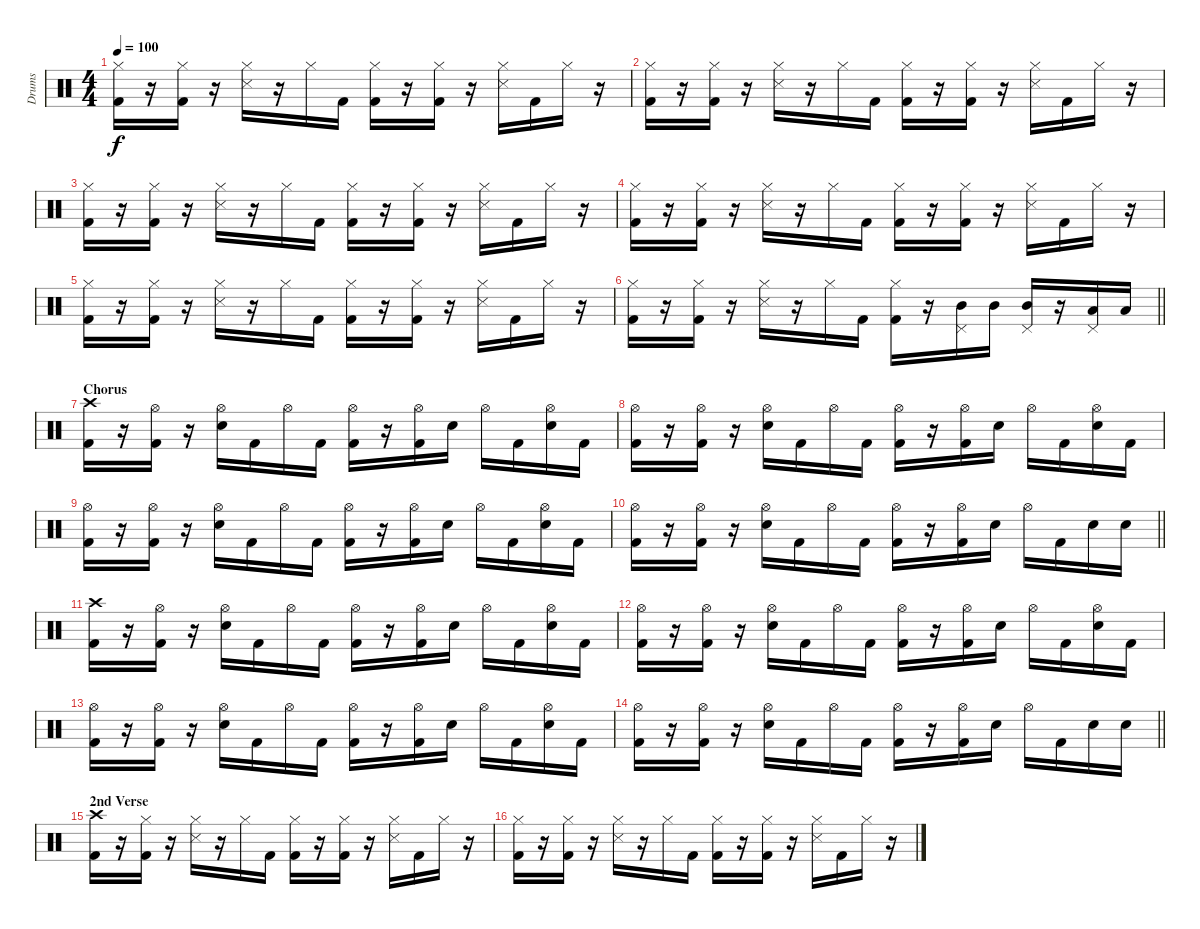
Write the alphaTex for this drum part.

\track ("Drums" "Drums") {instrument percussion}
\staff {score}
\articulation defaults
\ts (4 4)
\tempo 100
\clef neutral
\ks c
("Hi-Hat (closed)" "Kick (hit) 2").16{dy f} r.16 ("Hi-Hat (closed)" "Kick (hit) 2").16 r.16 ("Hi-Hat (closed)" "Snare (side stick) 3").16 r.16 "Hi-Hat (closed)".16 "Kick (hit) 2".16 ("Hi-Hat (closed)" "Kick (hit) 2").16 r.16 ("Hi-Hat (closed)" "Kick (hit) 2").16 r.16 ("Hi-Hat (closed)" "Snare (side stick) 3").16 "Kick (hit) 2".16 "Hi-Hat (closed)".16 r.16 |
("Hi-Hat (closed)" "Kick (hit) 2").16 r.16 ("Hi-Hat (closed)" "Kick (hit) 2").16 r.16 ("Hi-Hat (closed)" "Snare (side stick) 3").16 r.16 "Hi-Hat (closed)".16 "Kick (hit) 2".16 ("Hi-Hat (closed)" "Kick (hit) 2").16 r.16 ("Hi-Hat (closed)" "Kick (hit) 2").16 r.16 ("Hi-Hat (closed)" "Snare (side stick) 3").16 "Kick (hit) 2".16 "Hi-Hat (closed)".16 r.16 |
("Hi-Hat (closed)" "Kick (hit) 2").16 r.16 ("Hi-Hat (closed)" "Kick (hit) 2").16 r.16 ("Hi-Hat (closed)" "Snare (side stick) 3").16 r.16 "Hi-Hat (closed)".16 "Kick (hit) 2".16 ("Hi-Hat (closed)" "Kick (hit) 2").16 r.16 ("Hi-Hat (closed)" "Kick (hit) 2").16 r.16 ("Hi-Hat (closed)" "Snare (side stick) 3").16 "Kick (hit) 2".16 "Hi-Hat (closed)".16 r.16 |
("Hi-Hat (closed)" "Kick (hit) 2").16 r.16 ("Hi-Hat (closed)" "Kick (hit) 2").16 r.16 ("Hi-Hat (closed)" "Snare (side stick) 3").16 r.16 "Hi-Hat (closed)".16 "Kick (hit) 2".16 ("Hi-Hat (closed)" "Kick (hit) 2").16 r.16 ("Hi-Hat (closed)" "Kick (hit) 2").16 r.16 ("Hi-Hat (closed)" "Snare (side stick) 3").16 "Kick (hit) 2".16 "Hi-Hat (closed)".16 r.16 |
("Hi-Hat (closed)" "Kick (hit) 2").16 r.16 ("Hi-Hat (closed)" "Kick (hit) 2").16 r.16 ("Hi-Hat (closed)" "Snare (side stick) 3").16 r.16 "Hi-Hat (closed)".16 "Kick (hit) 2".16 ("Hi-Hat (closed)" "Kick (hit) 2").16 r.16 ("Hi-Hat (closed)" "Kick (hit) 2").16 r.16 ("Hi-Hat (closed)" "Snare (side stick) 3").16 "Kick (hit) 2".16 "Hi-Hat (closed)".16 r.16 |
\barLineRight lightlight
("Hi-Hat (closed)" "Kick (hit) 2").16 r.16 ("Hi-Hat (closed)" "Kick (hit) 2").16 r.16 ("Hi-Hat (closed)" "Snare (side stick) 3").16 r.16 "Hi-Hat (closed)".16 "Kick (hit) 2".16 ("Hi-Hat (closed)" "Kick (hit) 2").16 r.16 ("Pedal Hi-Hat (hit)" "Mid Tom (hit)").16 "Mid Tom (hit)".16 ("Pedal Hi-Hat (hit)" "Mid Tom (hit)").16 r.16 ("Pedal Hi-Hat (hit)" "Low Tom (hit)").16 "Low Tom (hit)".16 |
\section ("" "Chorus")
("Crash high (hit)" "Kick (hit) 2").16 r.16 ("Hi-Hat (open)" "Kick (hit) 2").16 r.16 ("Hi-Hat (open)" "Snare (hit) 2").16 "Kick (hit) 2".16 "Hi-Hat (open)".16 "Kick (hit) 2".16 ("Hi-Hat (open)" "Kick (hit) 2").16 r.16 ("Hi-Hat (open)" "Kick (hit) 2").16 "Snare (hit) 2".16 "Hi-Hat (open)".16 "Kick (hit) 2".16 ("Hi-Hat (open)" "Snare (hit) 2").16 "Kick (hit) 2".16 |
("Hi-Hat (open)" "Kick (hit) 2").16 r.16 ("Hi-Hat (open)" "Kick (hit) 2").16 r.16 ("Hi-Hat (open)" "Snare (hit) 2").16 "Kick (hit) 2".16 "Hi-Hat (open)".16 "Kick (hit) 2".16 ("Hi-Hat (open)" "Kick (hit) 2").16 r.16 ("Hi-Hat (open)" "Kick (hit) 2").16 "Snare (hit) 2".16 "Hi-Hat (open)".16 "Kick (hit) 2".16 ("Hi-Hat (open)" "Snare (hit) 2").16 "Kick (hit) 2".16 |
("Hi-Hat (open)" "Kick (hit) 2").16 r.16 ("Hi-Hat (open)" "Kick (hit) 2").16 r.16 ("Hi-Hat (open)" "Snare (hit) 2").16 "Kick (hit) 2".16 "Hi-Hat (open)".16 "Kick (hit) 2".16 ("Hi-Hat (open)" "Kick (hit) 2").16 r.16 ("Hi-Hat (open)" "Kick (hit) 2").16 "Snare (hit) 2".16 "Hi-Hat (open)".16 "Kick (hit) 2".16 ("Hi-Hat (open)" "Snare (hit) 2").16 "Kick (hit) 2".16 |
\barLineRight lightlight
("Hi-Hat (open)" "Kick (hit) 2").16 r.16 ("Hi-Hat (open)" "Kick (hit) 2").16 r.16 ("Hi-Hat (open)" "Snare (hit) 2").16 "Kick (hit) 2".16 "Hi-Hat (open)".16 "Kick (hit) 2".16 ("Hi-Hat (open)" "Kick (hit) 2").16 r.16 ("Hi-Hat (open)" "Kick (hit) 2").16 "Snare (hit) 2".16 "Hi-Hat (open)".16 "Kick (hit) 2".16 "Snare (hit) 2".16 "Snare (hit) 2".16 |
("Crash high (hit)" "Kick (hit) 2").16 r.16 ("Hi-Hat (open)" "Kick (hit) 2").16 r.16 ("Hi-Hat (open)" "Snare (hit) 2").16 "Kick (hit) 2".16 "Hi-Hat (open)".16 "Kick (hit) 2".16 ("Hi-Hat (open)" "Kick (hit) 2").16 r.16 ("Hi-Hat (open)" "Kick (hit) 2").16 "Snare (hit) 2".16 "Hi-Hat (open)".16 "Kick (hit) 2".16 ("Hi-Hat (open)" "Snare (hit) 2").16 "Kick (hit) 2".16 |
("Hi-Hat (open)" "Kick (hit) 2").16 r.16 ("Hi-Hat (open)" "Kick (hit) 2").16 r.16 ("Hi-Hat (open)" "Snare (hit) 2").16 "Kick (hit) 2".16 "Hi-Hat (open)".16 "Kick (hit) 2".16 ("Hi-Hat (open)" "Kick (hit) 2").16 r.16 ("Hi-Hat (open)" "Kick (hit) 2").16 "Snare (hit) 2".16 "Hi-Hat (open)".16 "Kick (hit) 2".16 ("Hi-Hat (open)" "Snare (hit) 2").16 "Kick (hit) 2".16 |
("Hi-Hat (open)" "Kick (hit) 2").16 r.16 ("Hi-Hat (open)" "Kick (hit) 2").16 r.16 ("Hi-Hat (open)" "Snare (hit) 2").16 "Kick (hit) 2".16 "Hi-Hat (open)".16 "Kick (hit) 2".16 ("Hi-Hat (open)" "Kick (hit) 2").16 r.16 ("Hi-Hat (open)" "Kick (hit) 2").16 "Snare (hit) 2".16 "Hi-Hat (open)".16 "Kick (hit) 2".16 ("Hi-Hat (open)" "Snare (hit) 2").16 "Kick (hit) 2".16 |
\barLineRight lightlight
("Hi-Hat (open)" "Kick (hit) 2").16 r.16 ("Hi-Hat (open)" "Kick (hit) 2").16 r.16 ("Hi-Hat (open)" "Snare (hit) 2").16 "Kick (hit) 2".16 "Hi-Hat (open)".16 "Kick (hit) 2".16 ("Hi-Hat (open)" "Kick (hit) 2").16 r.16 ("Hi-Hat (open)" "Kick (hit) 2").16 "Snare (hit) 2".16 "Hi-Hat (open)".16 "Kick (hit) 2".16 "Snare (hit) 2".16 "Snare (hit) 2".16 |
\section ("" "2nd Verse")
("Crash high (hit)" "Kick (hit) 2").16 r.16 ("Hi-Hat (closed)" "Kick (hit) 2").16 r.16 ("Hi-Hat (closed)" "Snare (side stick) 3").16 r.16 "Hi-Hat (closed)".16 "Kick (hit) 2".16 ("Hi-Hat (closed)" "Kick (hit) 2").16 r.16 ("Hi-Hat (closed)" "Kick (hit) 2").16 r.16 ("Hi-Hat (closed)" "Snare (side stick) 3").16 "Kick (hit) 2".16 "Hi-Hat (closed)".16 r.16 |
("Hi-Hat (closed)" "Kick (hit) 2").16 r.16 ("Hi-Hat (closed)" "Kick (hit) 2").16 r.16 ("Hi-Hat (closed)" "Snare (side stick) 3").16 r.16 "Hi-Hat (closed)".16 "Kick (hit) 2".16 ("Hi-Hat (closed)" "Kick (hit) 2").16 r.16 ("Hi-Hat (closed)" "Kick (hit) 2").16 r.16 ("Hi-Hat (closed)" "Snare (side stick) 3").16 "Kick (hit) 2".16 "Hi-Hat (closed)".16 r.16
